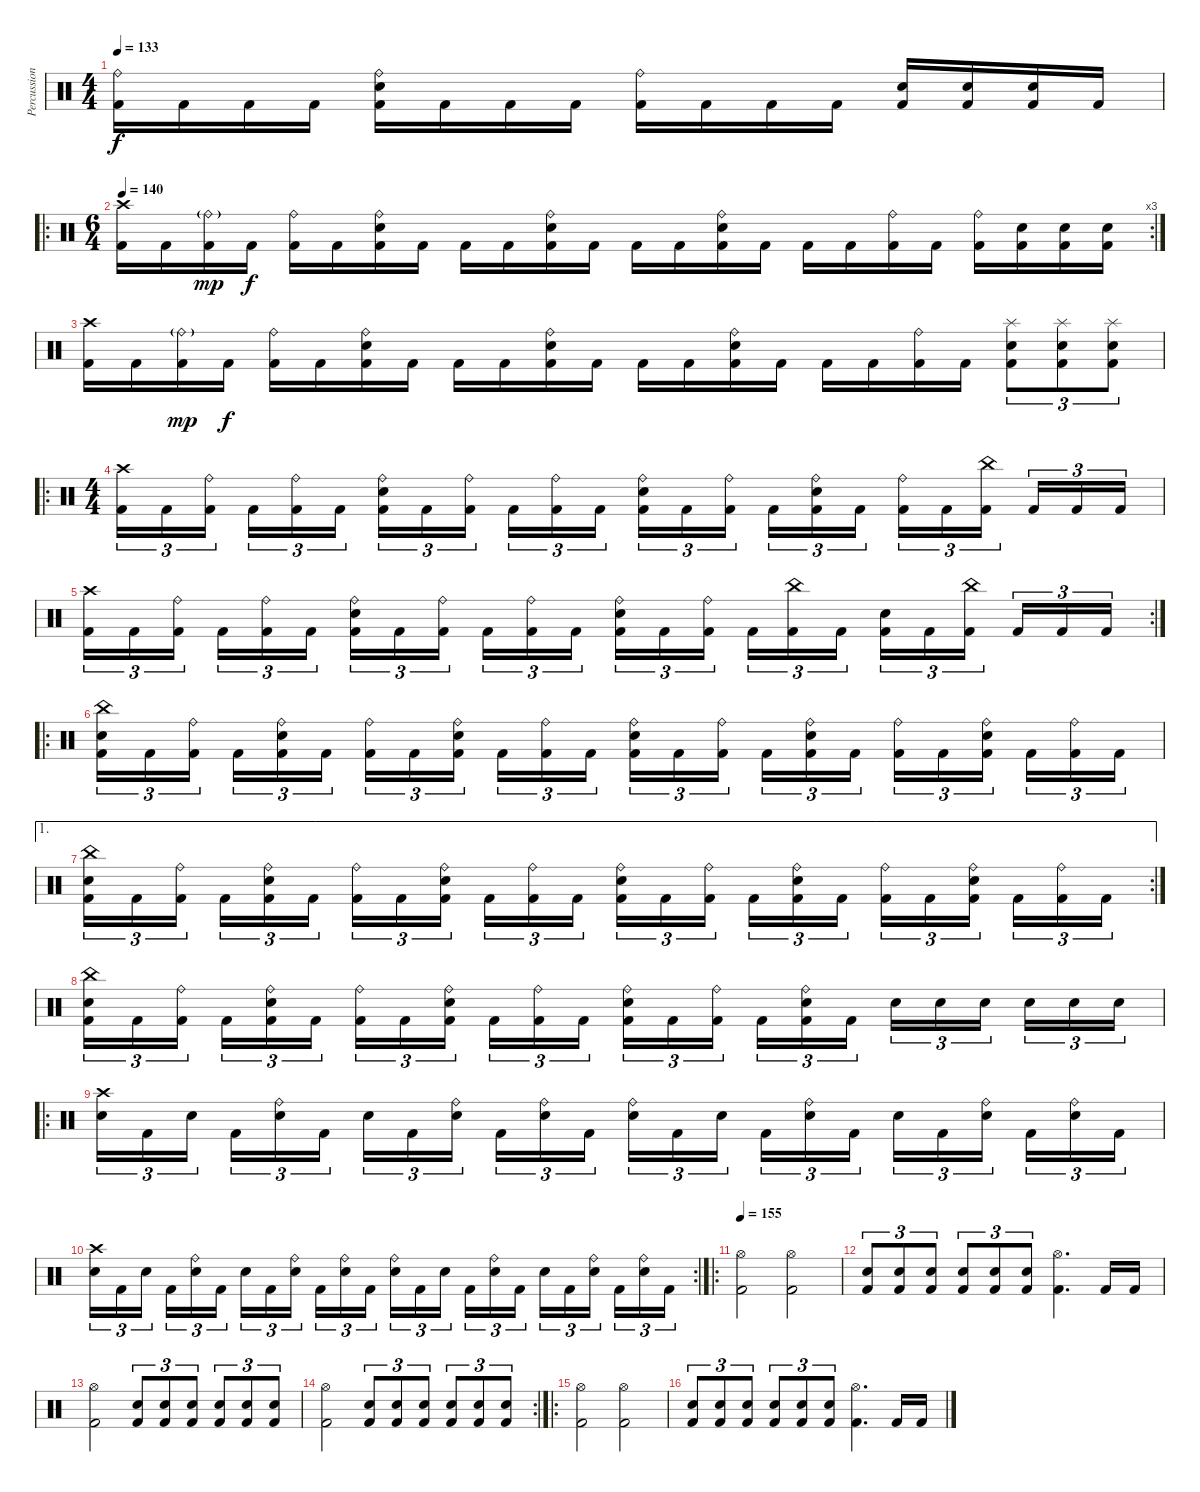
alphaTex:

\track ("Percussion" "Percussion") {instrument percussion}
\staff {score}
\articulation defaults
\ts (4 4)
\tempo 133
\clef neutral
\ks c
("Ride (bell)" "Kick (hit) 2").16{dy f} "Kick (hit) 2".16 "Kick (hit) 2".16 "Kick (hit) 2".16 ("Ride (bell)" "Snare (hit) 2" "Kick (hit) 2").16 "Kick (hit) 2".16 "Kick (hit) 2".16 "Kick (hit) 2".16 ("Ride (bell)" "Kick (hit) 2").16 "Kick (hit) 2".16 "Kick (hit) 2".16 "Kick (hit) 2".16 ("Snare (hit) 2" "Kick (hit) 2").16 ("Snare (hit) 2" "Kick (hit) 2").16 ("Snare (hit) 2" "Kick (hit) 2").16 "Kick (hit) 2".16 |
\ro
\rc 3
\ts (6 4)
\tempo 140
("Crash high (hit)" "Kick (hit) 2").16 "Kick (hit) 2".16 ("Ride (bell)"{g} "Kick (hit) 2").16{dy mp} "Kick (hit) 2".16{dy f} ("Ride (bell)" "Kick (hit) 2").16 "Kick (hit) 2".16 ("Ride (bell)" "Snare (hit) 2" "Kick (hit) 2").16 "Kick (hit) 2".16 "Kick (hit) 2".16 "Kick (hit) 2".16 ("Ride (bell)" "Snare (hit) 2" "Kick (hit) 2").16 "Kick (hit) 2".16 "Kick (hit) 2".16 "Kick (hit) 2".16 ("Ride (bell)" "Snare (hit) 2" "Kick (hit) 2").16 "Kick (hit) 2".16 "Kick (hit) 2".16 "Kick (hit) 2".16 ("Ride (bell)" "Kick (hit) 2").16 "Kick (hit) 2".16 ("Ride (bell)" "Kick (hit) 2").16 ("Snare (hit) 2" "Kick (hit) 2").16 ("Snare (hit) 2" "Kick (hit) 2").16 ("Snare (hit) 2" "Kick (hit) 2").16 |
("Crash high (hit)" "Kick (hit) 2").16 "Kick (hit) 2".16 ("Ride (bell)"{g} "Kick (hit) 2").16{dy mp} "Kick (hit) 2".16{dy f} ("Ride (bell)" "Kick (hit) 2").16 "Kick (hit) 2".16 ("Ride (bell)" "Snare (hit) 2" "Kick (hit) 2").16 "Kick (hit) 2".16 "Kick (hit) 2".16 "Kick (hit) 2".16 ("Ride (bell)" "Snare (hit) 2" "Kick (hit) 2").16 "Kick (hit) 2".16 "Kick (hit) 2".16 "Kick (hit) 2".16 ("Ride (bell)" "Snare (hit) 2" "Kick (hit) 2").16 "Kick (hit) 2".16 "Kick (hit) 2".16 "Kick (hit) 2".16 ("Ride (bell)" "Kick (hit) 2").16 "Kick (hit) 2".16 ("Splash (hit)" "Snare (hit) 2" "Kick (hit) 2").8{tu (3 2)} ("Splash (hit)" "Snare (hit) 2" "Kick (hit) 2").8{tu (3 2)} ("Splash (hit)" "Snare (hit) 2" "Kick (hit) 2").8{tu (3 2)} |
\ro
\ts (4 4)
("Crash high (hit)" "Kick (hit) 2").16{tu (3 2)} "Kick (hit) 2".16{tu (3 2)} ("Ride (bell)" "Kick (hit) 2").16{tu (3 2) beam splitsecondary} "Kick (hit) 2".16{tu (3 2)} ("Ride (bell)" "Kick (hit) 2").16{tu (3 2)} "Kick (hit) 2".16{tu (3 2)} ("Ride (bell)" "Snare (hit) 2" "Kick (hit) 2").16{tu (3 2)} "Kick (hit) 2".16{tu (3 2)} ("Ride (bell)" "Kick (hit) 2").16{tu (3 2) beam splitsecondary} "Kick (hit) 2".16{tu (3 2)} ("Ride (bell)" "Kick (hit) 2").16{tu (3 2)} "Kick (hit) 2".16{tu (3 2)} ("Ride (bell)" "Snare (hit) 2" "Kick (hit) 2").16{tu (3 2)} "Kick (hit) 2".16{tu (3 2)} ("Ride (bell)" "Kick (hit) 2").16{tu (3 2) beam splitsecondary} "Kick (hit) 2".16{tu (3 2)} ("Ride (bell)" "Snare (hit) 2" "Kick (hit) 2").16{tu (3 2)} "Kick (hit) 2".16{tu (3 2)} ("Ride (bell)" "Kick (hit) 2").16{tu (3 2)} "Kick (hit) 2".16{tu (3 2)} ("China (hit)" "Kick (hit) 2").16{tu (3 2) beam splitsecondary} "Kick (hit) 2".16{tu (3 2)} "Kick (hit) 2".16{tu (3 2)} "Kick (hit) 2".16{tu (3 2)} |
\rc 2
("Crash high (hit)" "Kick (hit) 2").16{tu (3 2)} "Kick (hit) 2".16{tu (3 2)} ("Ride (bell)" "Kick (hit) 2").16{tu (3 2) beam splitsecondary} "Kick (hit) 2".16{tu (3 2)} ("Ride (bell)" "Kick (hit) 2").16{tu (3 2)} "Kick (hit) 2".16{tu (3 2)} ("Ride (bell)" "Snare (hit) 2" "Kick (hit) 2").16{tu (3 2)} "Kick (hit) 2".16{tu (3 2)} ("Ride (bell)" "Kick (hit) 2").16{tu (3 2) beam splitsecondary} "Kick (hit) 2".16{tu (3 2)} ("Ride (bell)" "Kick (hit) 2").16{tu (3 2)} "Kick (hit) 2".16{tu (3 2)} ("Ride (bell)" "Snare (hit) 2" "Kick (hit) 2").16{tu (3 2)} "Kick (hit) 2".16{tu (3 2)} ("Ride (bell)" "Kick (hit) 2").16{tu (3 2) beam splitsecondary} "Kick (hit) 2".16{tu (3 2)} ("China (hit)" "Kick (hit) 2").16{tu (3 2)} "Kick (hit) 2".16{tu (3 2)} ("Snare (hit) 2" "Kick (hit) 2").16{tu (3 2)} "Kick (hit) 2".16{tu (3 2)} ("China (hit)" "Kick (hit) 2").16{tu (3 2) beam splitsecondary} "Kick (hit) 2".16{tu (3 2)} "Kick (hit) 2".16{tu (3 2)} "Kick (hit) 2".16{tu (3 2)} |
\ro
("China (hit)" "Snare (hit) 2" "Kick (hit) 2").16{tu (3 2)} "Kick (hit) 2".16{tu (3 2)} ("Ride (bell)" "Kick (hit) 2").16{tu (3 2) beam splitsecondary} "Kick (hit) 2".16{tu (3 2)} ("Ride (bell)" "Snare (hit) 2" "Kick (hit) 2").16{tu (3 2)} "Kick (hit) 2".16{tu (3 2)} ("Ride (bell)" "Kick (hit) 2").16{tu (3 2)} "Kick (hit) 2".16{tu (3 2)} ("Ride (bell)" "Snare (hit) 2" "Kick (hit) 2").16{tu (3 2) beam splitsecondary} "Kick (hit) 2".16{tu (3 2)} ("Ride (bell)" "Kick (hit) 2").16{tu (3 2)} "Kick (hit) 2".16{tu (3 2)} ("Ride (bell)" "Snare (hit) 2" "Kick (hit) 2").16{tu (3 2)} "Kick (hit) 2".16{tu (3 2)} ("Ride (bell)" "Kick (hit) 2").16{tu (3 2) beam splitsecondary} "Kick (hit) 2".16{tu (3 2)} ("Ride (bell)" "Snare (hit) 2" "Kick (hit) 2").16{tu (3 2)} "Kick (hit) 2".16{tu (3 2)} ("Ride (bell)" "Kick (hit) 2").16{tu (3 2)} "Kick (hit) 2".16{tu (3 2)} ("Ride (bell)" "Snare (hit) 2" "Kick (hit) 2").16{tu (3 2) beam splitsecondary} "Kick (hit) 2".16{tu (3 2)} ("Ride (bell)" "Kick (hit) 2").16{tu (3 2)} "Kick (hit) 2".16{tu (3 2)} |
\ae 1
\rc 2
("China (hit)" "Snare (hit) 2" "Kick (hit) 2").16{tu (3 2)} "Kick (hit) 2".16{tu (3 2)} ("Ride (bell)" "Kick (hit) 2").16{tu (3 2) beam splitsecondary} "Kick (hit) 2".16{tu (3 2)} ("Ride (bell)" "Snare (hit) 2" "Kick (hit) 2").16{tu (3 2)} "Kick (hit) 2".16{tu (3 2)} ("Ride (bell)" "Kick (hit) 2").16{tu (3 2)} "Kick (hit) 2".16{tu (3 2)} ("Ride (bell)" "Snare (hit) 2" "Kick (hit) 2").16{tu (3 2) beam splitsecondary} "Kick (hit) 2".16{tu (3 2)} ("Ride (bell)" "Kick (hit) 2").16{tu (3 2)} "Kick (hit) 2".16{tu (3 2)} ("Ride (bell)" "Snare (hit) 2" "Kick (hit) 2").16{tu (3 2)} "Kick (hit) 2".16{tu (3 2)} ("Ride (bell)" "Kick (hit) 2").16{tu (3 2) beam splitsecondary} "Kick (hit) 2".16{tu (3 2)} ("Ride (bell)" "Snare (hit) 2" "Kick (hit) 2").16{tu (3 2)} "Kick (hit) 2".16{tu (3 2)} ("Ride (bell)" "Kick (hit) 2").16{tu (3 2)} "Kick (hit) 2".16{tu (3 2)} ("Ride (bell)" "Snare (hit) 2" "Kick (hit) 2").16{tu (3 2) beam splitsecondary} "Kick (hit) 2".16{tu (3 2)} ("Ride (bell)" "Kick (hit) 2").16{tu (3 2)} "Kick (hit) 2".16{tu (3 2)} |
("China (hit)" "Snare (hit) 2" "Kick (hit) 2").16{tu (3 2)} "Kick (hit) 2".16{tu (3 2)} ("Ride (bell)" "Kick (hit) 2").16{tu (3 2) beam splitsecondary} "Kick (hit) 2".16{tu (3 2)} ("Ride (bell)" "Snare (hit) 2" "Kick (hit) 2").16{tu (3 2)} "Kick (hit) 2".16{tu (3 2)} ("Ride (bell)" "Kick (hit) 2").16{tu (3 2)} "Kick (hit) 2".16{tu (3 2)} ("Ride (bell)" "Snare (hit) 2" "Kick (hit) 2").16{tu (3 2) beam splitsecondary} "Kick (hit) 2".16{tu (3 2)} ("Ride (bell)" "Kick (hit) 2").16{tu (3 2)} "Kick (hit) 2".16{tu (3 2)} ("Ride (bell)" "Snare (hit) 2" "Kick (hit) 2").16{tu (3 2)} "Kick (hit) 2".16{tu (3 2)} ("Ride (bell)" "Kick (hit) 2").16{tu (3 2) beam splitsecondary} "Kick (hit) 2".16{tu (3 2)} ("Ride (bell)" "Snare (hit) 2" "Kick (hit) 2").16{tu (3 2)} "Kick (hit) 2".16{tu (3 2)} "Snare (hit) 2".16{tu (3 2)} "Snare (hit) 2".16{tu (3 2)} "Snare (hit) 2".16{tu (3 2) beam splitsecondary} "Snare (hit) 2".16{tu (3 2)} "Snare (hit) 2".16{tu (3 2)} "Snare (hit) 2".16{tu (3 2)} |
\ro
("Crash high (hit)" "Snare (hit) 2").16{tu (3 2)} "Kick (hit) 2".16{tu (3 2)} "Snare (hit) 2".16{tu (3 2) beam splitsecondary} "Kick (hit) 2".16{tu (3 2)} ("Ride (bell)" "Snare (hit) 2").16{tu (3 2)} "Kick (hit) 2".16{tu (3 2)} "Snare (hit) 2".16{tu (3 2)} "Kick (hit) 2".16{tu (3 2)} ("Ride (bell)" "Snare (hit) 2").16{tu (3 2) beam splitsecondary} "Kick (hit) 2".16{tu (3 2)} ("Ride (bell)" "Snare (hit) 2").16{tu (3 2)} "Kick (hit) 2".16{tu (3 2)} ("Ride (bell)" "Snare (hit) 2").16{tu (3 2)} "Kick (hit) 2".16{tu (3 2)} "Snare (hit) 2".16{tu (3 2) beam splitsecondary} "Kick (hit) 2".16{tu (3 2)} ("Ride (bell)" "Snare (hit) 2").16{tu (3 2)} "Kick (hit) 2".16{tu (3 2)} "Snare (hit) 2".16{tu (3 2)} "Kick (hit) 2".16{tu (3 2)} ("Ride (bell)" "Snare (hit) 2").16{tu (3 2) beam splitsecondary} "Kick (hit) 2".16{tu (3 2)} ("Ride (bell)" "Snare (hit) 2").16{tu (3 2)} "Kick (hit) 2".16{tu (3 2)} |
\rc 2
("Crash high (hit)" "Snare (hit) 2").16{tu (3 2)} "Kick (hit) 2".16{tu (3 2)} "Snare (hit) 2".16{tu (3 2) beam splitsecondary} "Kick (hit) 2".16{tu (3 2)} ("Ride (bell)" "Snare (hit) 2").16{tu (3 2)} "Kick (hit) 2".16{tu (3 2)} "Snare (hit) 2".16{tu (3 2)} "Kick (hit) 2".16{tu (3 2)} ("Ride (bell)" "Snare (hit) 2").16{tu (3 2) beam splitsecondary} "Kick (hit) 2".16{tu (3 2)} ("Ride (bell)" "Snare (hit) 2").16{tu (3 2)} "Kick (hit) 2".16{tu (3 2)} ("Ride (bell)" "Snare (hit) 2").16{tu (3 2)} "Kick (hit) 2".16{tu (3 2)} "Snare (hit) 2".16{tu (3 2) beam splitsecondary} "Kick (hit) 2".16{tu (3 2)} ("Ride (bell)" "Snare (hit) 2").16{tu (3 2)} "Kick (hit) 2".16{tu (3 2)} "Snare (hit) 2".16{tu (3 2)} "Kick (hit) 2".16{tu (3 2)} ("Ride (bell)" "Snare (hit) 2").16{tu (3 2) beam splitsecondary} "Kick (hit) 2".16{tu (3 2)} ("Ride (bell)" "Snare (hit) 2").16{tu (3 2)} "Kick (hit) 2".16{tu (3 2)} |
\ro
\tempo 155
("Hi-Hat (open)" "Kick (hit) 2").2 ("Hi-Hat (open)" "Kick (hit) 2").2 |
("Snare (hit) 2" "Kick (hit) 2").8{tu (3 2)} ("Snare (hit) 2" "Kick (hit) 2").8{tu (3 2)} ("Snare (hit) 2" "Kick (hit) 2").8{tu (3 2)} ("Snare (hit) 2" "Kick (hit) 2").8{tu (3 2)} ("Snare (hit) 2" "Kick (hit) 2").8{tu (3 2)} ("Snare (hit) 2" "Kick (hit) 2").8{tu (3 2)} ("Hi-Hat (open)" "Kick (hit) 2").4{d} "Kick (hit) 2".16 "Kick (hit) 2".16 |
("Hi-Hat (open)" "Kick (hit) 2").2 ("Snare (hit) 2" "Kick (hit) 2").8{tu (3 2)} ("Snare (hit) 2" "Kick (hit) 2").8{tu (3 2)} ("Snare (hit) 2" "Kick (hit) 2").8{tu (3 2)} ("Snare (hit) 2" "Kick (hit) 2").8{tu (3 2)} ("Snare (hit) 2" "Kick (hit) 2").8{tu (3 2)} ("Snare (hit) 2" "Kick (hit) 2").8{tu (3 2)} |
\rc 2
("Hi-Hat (open)" "Kick (hit) 2").2 ("Snare (hit) 2" "Kick (hit) 2").8{tu (3 2)} ("Snare (hit) 2" "Kick (hit) 2").8{tu (3 2)} ("Snare (hit) 2" "Kick (hit) 2").8{tu (3 2)} ("Snare (hit) 2" "Kick (hit) 2").8{tu (3 2)} ("Snare (hit) 2" "Kick (hit) 2").8{tu (3 2)} ("Snare (hit) 2" "Kick (hit) 2").8{tu (3 2)} |
\ro
("Hi-Hat (open)" "Kick (hit) 2").2 ("Hi-Hat (open)" "Kick (hit) 2").2 |
("Snare (hit) 2" "Kick (hit) 2").8{tu (3 2)} ("Snare (hit) 2" "Kick (hit) 2").8{tu (3 2)} ("Snare (hit) 2" "Kick (hit) 2").8{tu (3 2)} ("Snare (hit) 2" "Kick (hit) 2").8{tu (3 2)} ("Snare (hit) 2" "Kick (hit) 2").8{tu (3 2)} ("Snare (hit) 2" "Kick (hit) 2").8{tu (3 2)} ("Hi-Hat (open)" "Kick (hit) 2").4{d} "Kick (hit) 2".16 "Kick (hit) 2".16
